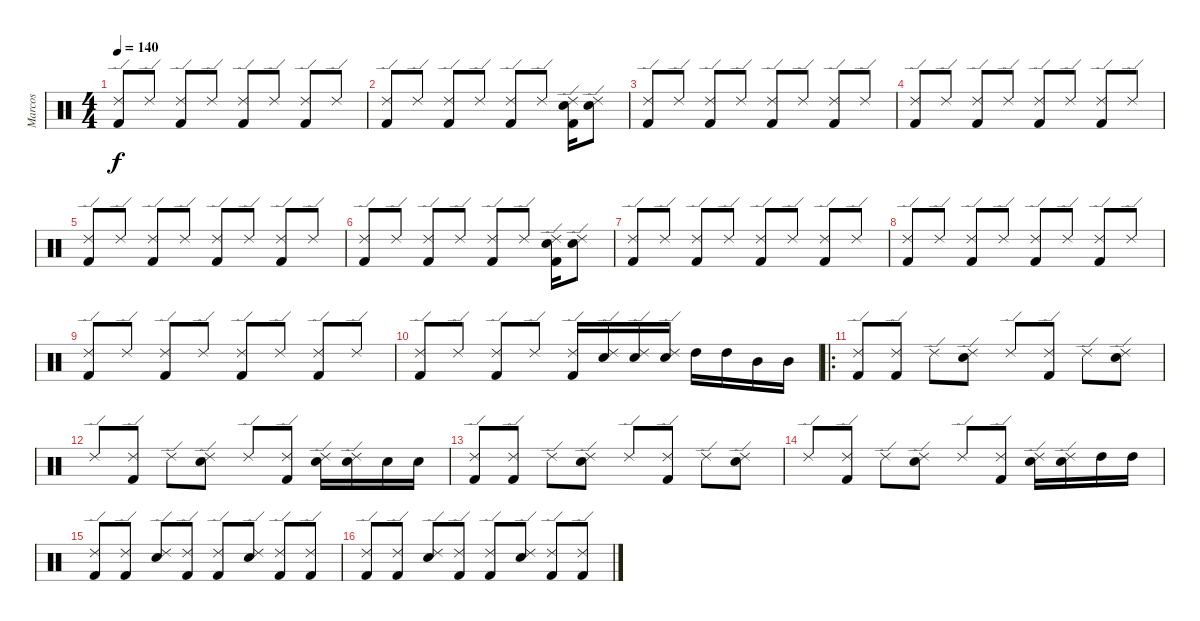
\track ("Marcos" "Marcos") {instrument percussion}
\staff {score}
\articulation defaults
\ts (4 4)
\tempo 140
\clef neutral
\ks c
("Ride (edge) 2" "Kick (hit) 2").8{dy f} "Ride (edge) 2".8 ("Ride (edge) 2" "Kick (hit) 2").8 "Ride (edge) 2".8 ("Ride (edge) 2" "Kick (hit) 2").8 "Ride (edge) 2".8 ("Ride (edge) 2" "Kick (hit) 2").8 "Ride (edge) 2".8 |
("Ride (edge) 2" "Kick (hit) 2").8 "Ride (edge) 2".8 ("Ride (edge) 2" "Kick (hit) 2").8 "Ride (edge) 2".8 ("Ride (edge) 2" "Kick (hit) 2").8 "Ride (edge) 2".8 ("Ride (edge) 2" "Kick (hit) 2" "Electric Snare (hit)").16 ("Ride (edge) 2" "Electric Snare (hit)").8 |
("Ride (edge) 2" "Kick (hit) 2").8 "Ride (edge) 2".8 ("Ride (edge) 2" "Kick (hit) 2").8 "Ride (edge) 2".8 ("Ride (edge) 2" "Kick (hit) 2").8 "Ride (edge) 2".8 ("Ride (edge) 2" "Kick (hit) 2").8 "Ride (edge) 2".8 |
("Ride (edge) 2" "Kick (hit) 2").8 "Ride (edge) 2".8 ("Ride (edge) 2" "Kick (hit) 2").8 "Ride (edge) 2".8 ("Ride (edge) 2" "Kick (hit) 2").8 "Ride (edge) 2".8 ("Ride (edge) 2" "Kick (hit) 2").8 "Ride (edge) 2".8 |
("Ride (edge) 2" "Kick (hit) 2").8 "Ride (edge) 2".8 ("Ride (edge) 2" "Kick (hit) 2").8 "Ride (edge) 2".8 ("Ride (edge) 2" "Kick (hit) 2").8 "Ride (edge) 2".8 ("Ride (edge) 2" "Kick (hit) 2").8 "Ride (edge) 2".8 |
("Ride (edge) 2" "Kick (hit) 2").8 "Ride (edge) 2".8 ("Ride (edge) 2" "Kick (hit) 2").8 "Ride (edge) 2".8 ("Ride (edge) 2" "Kick (hit) 2").8 "Ride (edge) 2".8 ("Ride (edge) 2" "Kick (hit) 2" "Electric Snare (hit)").16 ("Ride (edge) 2" "Electric Snare (hit)").8 |
("Ride (edge) 2" "Kick (hit) 2").8 "Ride (edge) 2".8 ("Ride (edge) 2" "Kick (hit) 2").8 "Ride (edge) 2".8 ("Ride (edge) 2" "Kick (hit) 2").8 "Ride (edge) 2".8 ("Ride (edge) 2" "Kick (hit) 2").8 "Ride (edge) 2".8 |
("Ride (edge) 2" "Kick (hit) 2").8 "Ride (edge) 2".8 ("Ride (edge) 2" "Kick (hit) 2").8 "Ride (edge) 2".8 ("Ride (edge) 2" "Kick (hit) 2").8 "Ride (edge) 2".8 ("Ride (edge) 2" "Kick (hit) 2").8 "Ride (edge) 2".8 |
("Ride (edge) 2" "Kick (hit) 2").8 "Ride (edge) 2".8 ("Ride (edge) 2" "Kick (hit) 2").8 "Ride (edge) 2".8 ("Ride (edge) 2" "Kick (hit) 2").8 "Ride (edge) 2".8 ("Ride (edge) 2" "Kick (hit) 2").8 "Ride (edge) 2".8 |
("Ride (edge) 2" "Kick (hit) 2").8 "Ride (edge) 2".8 ("Ride (edge) 2" "Kick (hit) 2").8 "Ride (edge) 2".8 ("Ride (edge) 2" "Kick (hit) 2").16 ("Ride (edge) 2" "Electric Snare (hit)").16 ("Ride (edge) 2" "Electric Snare (hit)").16 ("Ride (edge) 2" "Electric Snare (hit)").16 "High Tom (hit)".16 "High Tom (hit)".16 "Mid Tom (hit)".16 "Mid Tom (hit)".16 |
\ro
("Ride (edge) 2" "Kick (hit) 2").8 ("Ride (edge) 2" "Kick (hit) 2").8 "Ride (edge) 2".8 ("Ride (edge) 2" "Electric Snare (hit)").8 "Ride (edge) 2".8 ("Ride (edge) 2" "Kick (hit) 2").8 "Ride (edge) 2".8 ("Ride (edge) 2" "Electric Snare (hit)").8 |
"Ride (edge) 2".8 ("Ride (edge) 2" "Kick (hit) 2").8 "Ride (edge) 2".8 ("Ride (edge) 2" "Electric Snare (hit)").8 "Ride (edge) 2".8 ("Ride (edge) 2" "Kick (hit) 2").8 ("Ride (edge) 2" "Electric Snare (hit)").16 ("Ride (edge) 2" "Electric Snare (hit)").16 "Electric Snare (hit)".16 "Electric Snare (hit)".16 |
("Ride (edge) 2" "Kick (hit) 2").8 ("Ride (edge) 2" "Kick (hit) 2").8 "Ride (edge) 2".8 ("Ride (edge) 2" "Electric Snare (hit)").8 "Ride (edge) 2".8 ("Ride (edge) 2" "Kick (hit) 2").8 "Ride (edge) 2".8 ("Ride (edge) 2" "Electric Snare (hit)").8 |
"Ride (edge) 2".8 ("Ride (edge) 2" "Kick (hit) 2").8 "Ride (edge) 2".8 ("Ride (edge) 2" "Electric Snare (hit)").8 "Ride (edge) 2".8 ("Ride (edge) 2" "Kick (hit) 2").8 ("Ride (edge) 2" "Electric Snare (hit)").16 ("Ride (edge) 2" "Electric Snare (hit)").16 "High Tom (hit)".16 "High Tom (hit)".16 |
("Ride (edge) 2" "Kick (hit) 2").8 ("Ride (edge) 2" "Kick (hit) 2").8 ("Ride (edge) 2" "Electric Snare (hit)").8 ("Ride (edge) 2" "Kick (hit) 2").8 ("Ride (edge) 2" "Kick (hit) 2").8 ("Ride (edge) 2" "Electric Snare (hit)").8 ("Ride (edge) 2" "Kick (hit) 2").8 ("Ride (edge) 2" "Kick (hit) 2").8 |
("Ride (edge) 2" "Kick (hit) 2").8 ("Ride (edge) 2" "Kick (hit) 2").8 ("Ride (edge) 2" "Electric Snare (hit)").8 ("Ride (edge) 2" "Kick (hit) 2").8 ("Ride (edge) 2" "Kick (hit) 2").8 ("Ride (edge) 2" "Electric Snare (hit)").8 ("Ride (edge) 2" "Kick (hit) 2").8 ("Ride (edge) 2" "Kick (hit) 2").8
